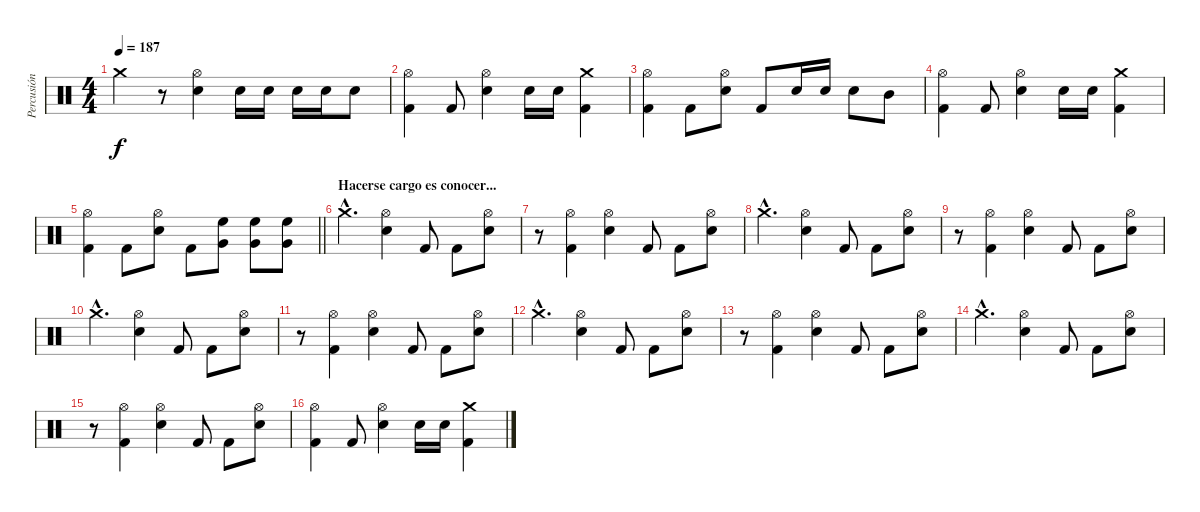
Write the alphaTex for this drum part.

\track ("Percusión" "Percusión") {instrument percussion}
\staff {score}
\articulation defaults
\ts (4 4)
\tempo 187
\clef neutral
\ks c "Crash medium (hit)".4{dy f}
r.8 ("Hi-Hat (open)" "Snare (hit) 2").4 "Snare (hit) 2".16 "Snare (hit) 2".16 "Snare (hit) 2".16 "Snare (hit) 2".16 "Snare (hit) 2".8 |
("Hi-Hat (open)" "Kick (hit) 2").4 "Kick (hit) 2".8 ("Hi-Hat (open)" "Snare (hit) 2").4 "Snare (hit) 2".16 "Snare (hit) 2".16 ("Crash medium (hit)" "Kick (hit) 2").4 |
("Hi-Hat (open)" "Kick (hit) 2").4 "Kick (hit) 2".8 ("Hi-Hat (open)" "Snare (hit) 2").8 "Kick (hit) 2".8 "Snare (hit) 2".16 "Snare (hit) 2".16 "Snare (hit) 2".8 "Mid Tom (hit)".8 |
("Hi-Hat (open)" "Kick (hit) 2").4 "Kick (hit) 2".8 ("Hi-Hat (open)" "Snare (hit) 2").4 "Snare (hit) 2".16 "Snare (hit) 2".16 ("Crash medium (hit)" "Kick (hit) 2").4 |
\barLineRight lightlight
("Hi-Hat (open)" "Kick (hit) 2").4 "Kick (hit) 2".8 ("Hi-Hat (open)" "Snare (hit) 2").8 "Kick (hit) 2".8 ("Very Low Tom (hit)" "High Floor Tom (hit)").8 ("Very Low Tom (hit)" "High Floor Tom (hit)").8 ("Very Low Tom (hit)" "High Floor Tom (hit)").8 |
\section ("" "Hacerse cargo es conocer...")
"Crash medium (hit)"{hac}.4{d} ("Hi-Hat (open)" "Snare (hit) 2").4 "Kick (hit) 2".8 "Kick (hit) 2".8 ("Hi-Hat (open)" "Snare (hit) 2").8 |
r.8 ("Hi-Hat (open)" "Kick (hit) 2").4 ("Hi-Hat (open)" "Snare (hit) 2").4 "Kick (hit) 2".8 "Kick (hit) 2".8 ("Hi-Hat (open)" "Snare (hit) 2").8 |
"Crash medium (hit)"{hac}.4{d} ("Hi-Hat (open)" "Snare (hit) 2").4 "Kick (hit) 2".8 "Kick (hit) 2".8 ("Hi-Hat (open)" "Snare (hit) 2").8 |
r.8 ("Hi-Hat (open)" "Kick (hit) 2").4 ("Hi-Hat (open)" "Snare (hit) 2").4 "Kick (hit) 2".8 "Kick (hit) 2".8 ("Hi-Hat (open)" "Snare (hit) 2").8 |
"Crash medium (hit)"{hac}.4{d} ("Hi-Hat (open)" "Snare (hit) 2").4 "Kick (hit) 2".8 "Kick (hit) 2".8 ("Hi-Hat (open)" "Snare (hit) 2").8 |
r.8 ("Hi-Hat (open)" "Kick (hit) 2").4 ("Hi-Hat (open)" "Snare (hit) 2").4 "Kick (hit) 2".8 "Kick (hit) 2".8 ("Hi-Hat (open)" "Snare (hit) 2").8 |
"Crash medium (hit)"{hac}.4{d} ("Hi-Hat (open)" "Snare (hit) 2").4 "Kick (hit) 2".8 "Kick (hit) 2".8 ("Hi-Hat (open)" "Snare (hit) 2").8 |
r.8 ("Hi-Hat (open)" "Kick (hit) 2").4 ("Hi-Hat (open)" "Snare (hit) 2").4 "Kick (hit) 2".8 "Kick (hit) 2".8 ("Hi-Hat (open)" "Snare (hit) 2").8 |
"Crash medium (hit)"{hac}.4{d} ("Hi-Hat (open)" "Snare (hit) 2").4 "Kick (hit) 2".8 "Kick (hit) 2".8 ("Hi-Hat (open)" "Snare (hit) 2").8 |
r.8 ("Hi-Hat (open)" "Kick (hit) 2").4 ("Hi-Hat (open)" "Snare (hit) 2").4 "Kick (hit) 2".8 "Kick (hit) 2".8 ("Hi-Hat (open)" "Snare (hit) 2").8 |
("Hi-Hat (open)" "Kick (hit) 2").4 "Kick (hit) 2".8 ("Hi-Hat (open)" "Snare (hit) 2").4 "Snare (hit) 2".16 "Snare (hit) 2".16 ("Crash medium (hit)" "Kick (hit) 2").4
